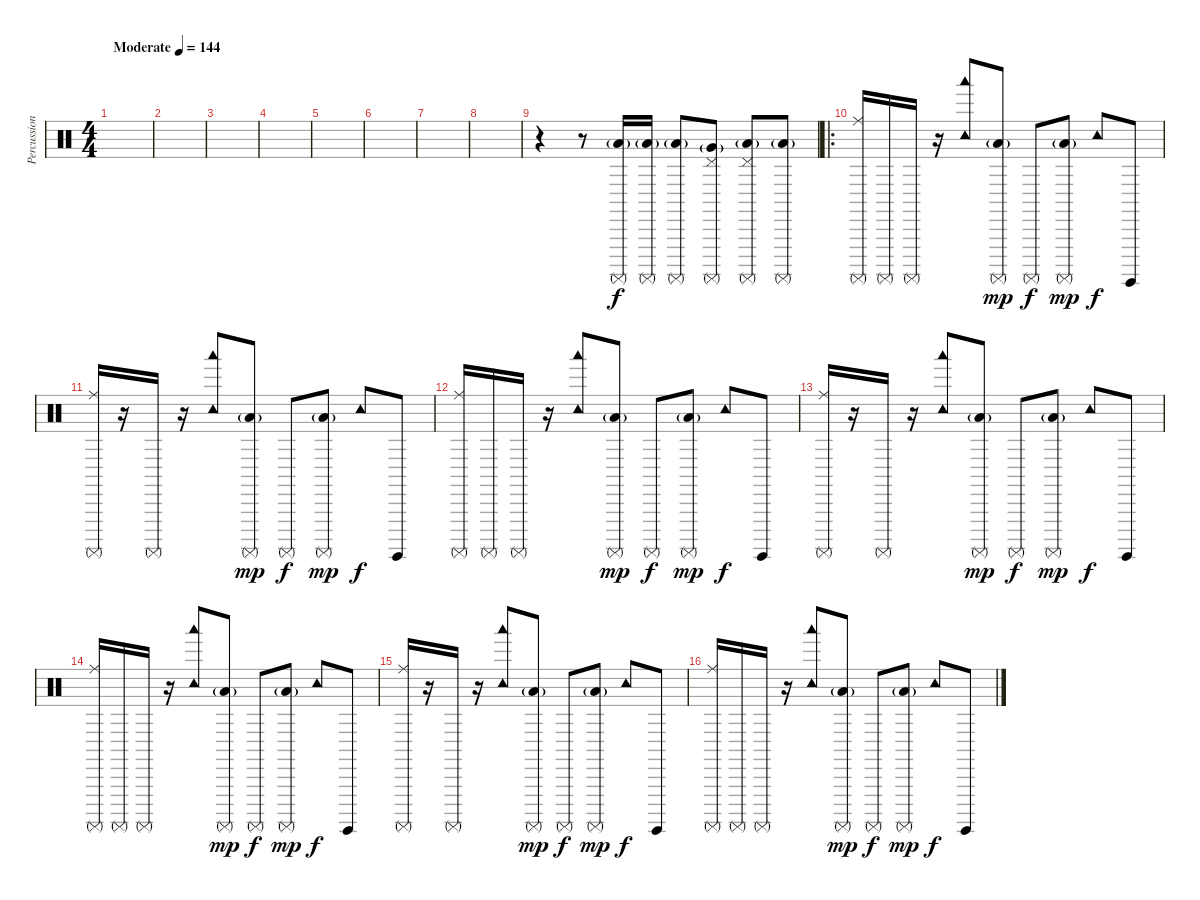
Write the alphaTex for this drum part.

\track ("Percussion" "Percussion") {instrument percussion}
\staff {score}
\articulation defaults
\ts (4 4)
\tempo (144 "Moderate")
\clef neutral
\ks c
|
|
|
|
|
|
|
|
r.4 r.8 ("Low Tom (hit)"{g} "Surdo (mute)").16 ("Low Tom (hit)"{g} "Surdo (mute)").16 ("Low Tom (hit)"{g} "Surdo (mute)").8 ("Pedal Hi-Hat (hit)" "Very Low Tom (hit)"{g} "Surdo (mute)").8 ("Pedal Hi-Hat (hit)" "Low Floor Tom (hit)"{g} "Surdo (mute)").8 ("Low Floor Tom (hit)"{g} "Surdo (mute)").8 |
\ro
("Ride (middle)" "Surdo (mute)").16{dy f} "Surdo (mute)".16 "Surdo (mute)".16 r.16 ("Tambourine (hit)" "Woodblock low (hit)").8 ("Low Floor Tom (hit)"{g} "Surdo (mute)").8{dy mp} "Surdo (mute)".8{dy f} ("Low Floor Tom (hit)"{g} "Surdo (mute)").8{dy mp} "Tambourine (hit)".8{dy f} "Surdo (hit)".8 |
("Ride (middle)" "Surdo (mute)").16 r.16 "Surdo (mute)".16 r.16 ("Tambourine (hit)" "Woodblock low (hit)").8 ("Low Floor Tom (hit)"{g} "Surdo (mute)").8{dy mp} "Surdo (mute)".8{dy f} ("Low Floor Tom (hit)"{g} "Surdo (mute)").8{dy mp} "Tambourine (hit)".8{dy f} "Surdo (hit)".8 |
("Ride (middle)" "Surdo (mute)").16 "Surdo (mute)".16 "Surdo (mute)".16 r.16 ("Tambourine (hit)" "Woodblock low (hit)").8 ("Low Floor Tom (hit)"{g} "Surdo (mute)").8{dy mp} "Surdo (mute)".8{dy f} ("Low Floor Tom (hit)"{g} "Surdo (mute)").8{dy mp} "Tambourine (hit)".8{dy f} "Surdo (hit)".8 |
("Ride (middle)" "Surdo (mute)").16 r.16 "Surdo (mute)".16 r.16 ("Tambourine (hit)" "Woodblock low (hit)").8 ("Low Floor Tom (hit)"{g} "Surdo (mute)").8{dy mp} "Surdo (mute)".8{dy f} ("Low Floor Tom (hit)"{g} "Surdo (mute)").8{dy mp} "Tambourine (hit)".8{dy f} "Surdo (hit)".8 |
("Ride (middle)" "Surdo (mute)").16 "Surdo (mute)".16 "Surdo (mute)".16 r.16 ("Tambourine (hit)" "Woodblock low (hit)").8 ("Low Floor Tom (hit)"{g} "Surdo (mute)").8{dy mp} "Surdo (mute)".8{dy f} ("Low Floor Tom (hit)"{g} "Surdo (mute)").8{dy mp} "Tambourine (hit)".8{dy f} "Surdo (hit)".8 |
("Ride (middle)" "Surdo (mute)").16 r.16 "Surdo (mute)".16 r.16 ("Tambourine (hit)" "Woodblock low (hit)").8 ("Low Floor Tom (hit)"{g} "Surdo (mute)").8{dy mp} "Surdo (mute)".8{dy f} ("Low Floor Tom (hit)"{g} "Surdo (mute)").8{dy mp} "Tambourine (hit)".8{dy f} "Surdo (hit)".8 |
("Ride (middle)" "Surdo (mute)").16 "Surdo (mute)".16 "Surdo (mute)".16 r.16 ("Tambourine (hit)" "Woodblock low (hit)").8 ("Low Floor Tom (hit)"{g} "Surdo (mute)").8{dy mp} "Surdo (mute)".8{dy f} ("Low Floor Tom (hit)"{g} "Surdo (mute)").8{dy mp} "Tambourine (hit)".8{dy f} "Surdo (hit)".8
